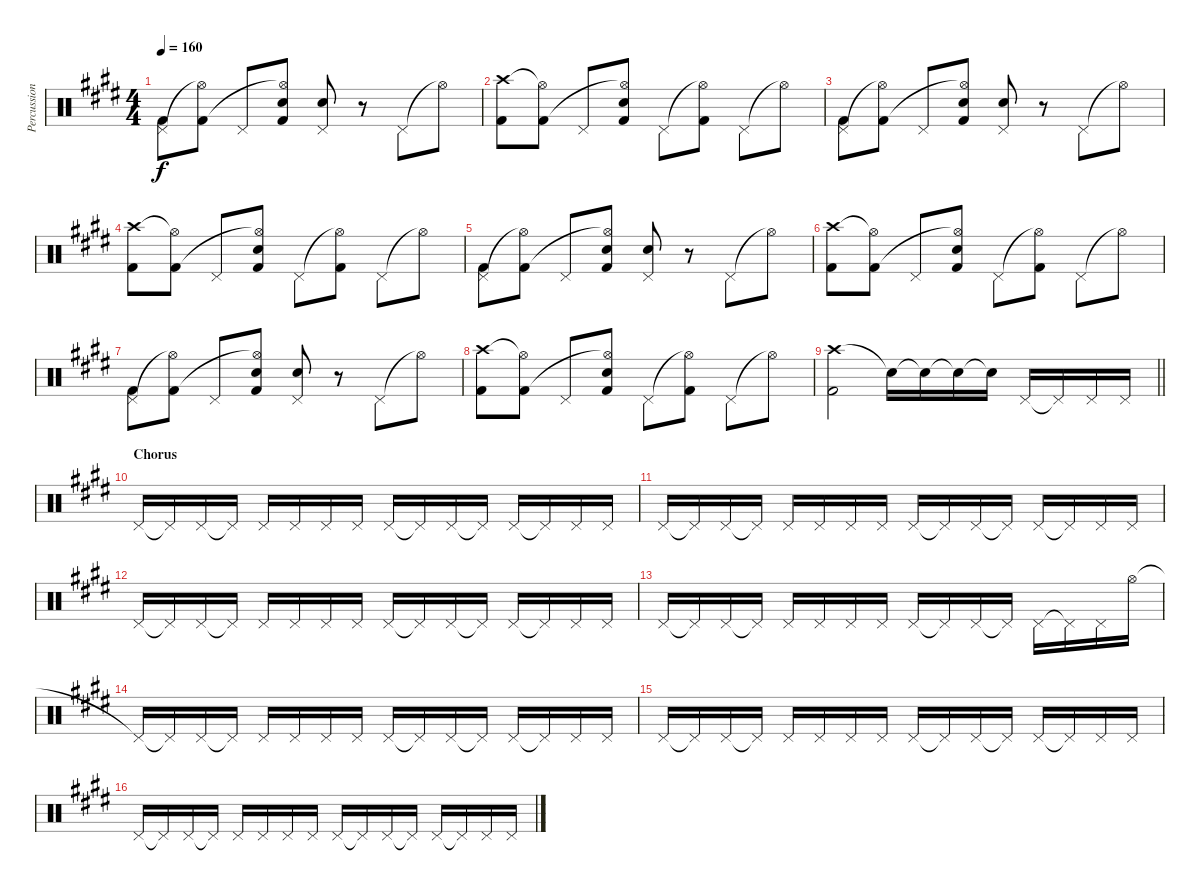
\track ("Percussion" "Percussion") {instrument percussion}
\staff {score}
\articulation defaults
\ts (4 4)
\tempo 160
\clef neutral
\ks c#minor
("Pedal Hi-Hat (hit)" "Kick (hit) 2").8{dy f} ("Hi-Hat (open)"{t} "Kick (hit) 2").8 "Pedal Hi-Hat (hit)".8 ("Electric Snare (hit)" "Hi-Hat (open)"{t} "Kick (hit) 2").8 ("Electric Snare (hit)" "Pedal Hi-Hat (hit)").8 r.8 "Pedal Hi-Hat (hit)".8 "Hi-Hat (open)"{t}.8 |
("Crash high (hit)" "Kick (hit) 2").8 ("Hi-Hat (open)"{t} "Kick (hit) 2").8 "Pedal Hi-Hat (hit)".8 ("Electric Snare (hit)" "Hi-Hat (open)"{t} "Kick (hit) 2").8 "Pedal Hi-Hat (hit)".8 ("Hi-Hat (open)"{t} "Kick (hit) 2").8 "Pedal Hi-Hat (hit)".8 "Hi-Hat (open)"{t}.8 |
("Pedal Hi-Hat (hit)" "Kick (hit) 2").8 ("Hi-Hat (open)"{t} "Kick (hit) 2").8 "Pedal Hi-Hat (hit)".8 ("Electric Snare (hit)" "Hi-Hat (open)"{t} "Kick (hit) 2").8 ("Electric Snare (hit)" "Pedal Hi-Hat (hit)").8 r.8 "Pedal Hi-Hat (hit)".8 "Hi-Hat (open)"{t}.8 |
("Crash high (hit)" "Kick (hit) 2").8 ("Hi-Hat (open)"{t} "Kick (hit) 2").8 "Pedal Hi-Hat (hit)".8 ("Electric Snare (hit)" "Hi-Hat (open)"{t} "Kick (hit) 2").8 "Pedal Hi-Hat (hit)".8 ("Hi-Hat (open)"{t} "Kick (hit) 2").8 "Pedal Hi-Hat (hit)".8 "Hi-Hat (open)"{t}.8 |
("Pedal Hi-Hat (hit)" "Kick (hit) 2").8 ("Hi-Hat (open)"{t} "Kick (hit) 2").8 "Pedal Hi-Hat (hit)".8 ("Electric Snare (hit)" "Hi-Hat (open)"{t} "Kick (hit) 2").8 ("Electric Snare (hit)" "Pedal Hi-Hat (hit)").8 r.8 "Pedal Hi-Hat (hit)".8 "Hi-Hat (open)"{t}.8 |
("Crash high (hit)" "Kick (hit) 2").8 ("Hi-Hat (open)"{t} "Kick (hit) 2").8 "Pedal Hi-Hat (hit)".8 ("Electric Snare (hit)" "Hi-Hat (open)"{t} "Kick (hit) 2").8 "Pedal Hi-Hat (hit)".8 ("Hi-Hat (open)"{t} "Kick (hit) 2").8 "Pedal Hi-Hat (hit)".8 "Hi-Hat (open)"{t}.8 |
("Pedal Hi-Hat (hit)" "Kick (hit) 2").8 ("Hi-Hat (open)"{t} "Kick (hit) 2").8 "Pedal Hi-Hat (hit)".8 ("Electric Snare (hit)" "Hi-Hat (open)"{t} "Kick (hit) 2").8 ("Electric Snare (hit)" "Pedal Hi-Hat (hit)").8 r.8 "Pedal Hi-Hat (hit)".8 "Hi-Hat (open)"{t}.8 |
("Crash high (hit)" "Kick (hit) 2").8 ("Hi-Hat (open)"{t} "Kick (hit) 2").8 "Pedal Hi-Hat (hit)".8 ("Electric Snare (hit)" "Hi-Hat (open)"{t} "Kick (hit) 2").8 "Pedal Hi-Hat (hit)".8 ("Hi-Hat (open)"{t} "Kick (hit) 2").8 "Pedal Hi-Hat (hit)".8 "Hi-Hat (open)"{t}.8 |
\barLineRight lightlight
("Crash high (hit)" "Kick (hit) 2").2 "Snare (hit)"{t}.16 "Snare (hit)"{t}.16 "Snare (hit)"{t}.16 "Snare (hit)"{t}.16 "Pedal Hi-Hat (hit)".16{volume 8} "Pedal Hi-Hat (hit)"{t}.16 "Pedal Hi-Hat (hit)".16 "Pedal Hi-Hat (hit)".16 |
\section ("" "Chorus")
"Pedal Hi-Hat (hit)".16 "Pedal Hi-Hat (hit)"{t}.16 "Pedal Hi-Hat (hit)".16 "Pedal Hi-Hat (hit)"{t}.16 "Pedal Hi-Hat (hit)".16 "Pedal Hi-Hat (hit)".16 "Pedal Hi-Hat (hit)".16 "Pedal Hi-Hat (hit)".16 "Pedal Hi-Hat (hit)".16 "Pedal Hi-Hat (hit)"{t}.16 "Pedal Hi-Hat (hit)".16 "Pedal Hi-Hat (hit)"{t}.16 "Pedal Hi-Hat (hit)".16 "Pedal Hi-Hat (hit)"{t}.16 "Pedal Hi-Hat (hit)".16 "Pedal Hi-Hat (hit)".16 |
"Pedal Hi-Hat (hit)".16 "Pedal Hi-Hat (hit)"{t}.16 "Pedal Hi-Hat (hit)".16 "Pedal Hi-Hat (hit)"{t}.16 "Pedal Hi-Hat (hit)".16 "Pedal Hi-Hat (hit)".16 "Pedal Hi-Hat (hit)".16 "Pedal Hi-Hat (hit)".16 "Pedal Hi-Hat (hit)".16 "Pedal Hi-Hat (hit)"{t}.16 "Pedal Hi-Hat (hit)".16 "Pedal Hi-Hat (hit)"{t}.16 "Pedal Hi-Hat (hit)".16 "Pedal Hi-Hat (hit)"{t}.16 "Pedal Hi-Hat (hit)".16 "Pedal Hi-Hat (hit)".16 |
"Pedal Hi-Hat (hit)".16 "Pedal Hi-Hat (hit)"{t}.16 "Pedal Hi-Hat (hit)".16 "Pedal Hi-Hat (hit)"{t}.16 "Pedal Hi-Hat (hit)".16 "Pedal Hi-Hat (hit)".16 "Pedal Hi-Hat (hit)".16 "Pedal Hi-Hat (hit)".16 "Pedal Hi-Hat (hit)".16 "Pedal Hi-Hat (hit)"{t}.16 "Pedal Hi-Hat (hit)".16 "Pedal Hi-Hat (hit)"{t}.16 "Pedal Hi-Hat (hit)".16 "Pedal Hi-Hat (hit)"{t}.16 "Pedal Hi-Hat (hit)".16 "Pedal Hi-Hat (hit)".16 |
"Pedal Hi-Hat (hit)".16 "Pedal Hi-Hat (hit)"{t}.16 "Pedal Hi-Hat (hit)".16 "Pedal Hi-Hat (hit)"{t}.16 "Pedal Hi-Hat (hit)".16 "Pedal Hi-Hat (hit)".16 "Pedal Hi-Hat (hit)".16 "Pedal Hi-Hat (hit)".16 "Pedal Hi-Hat (hit)".16 "Pedal Hi-Hat (hit)"{t}.16 "Pedal Hi-Hat (hit)".16 "Pedal Hi-Hat (hit)"{t}.16 "Pedal Hi-Hat (hit)".16 "Pedal Hi-Hat (hit)"{t}.16 "Pedal Hi-Hat (hit)".16 "Hi-Hat (open)".16 |
"Pedal Hi-Hat (hit)"{t}.16 "Pedal Hi-Hat (hit)"{t}.16 "Pedal Hi-Hat (hit)".16 "Pedal Hi-Hat (hit)"{t}.16 "Pedal Hi-Hat (hit)".16 "Pedal Hi-Hat (hit)".16 "Pedal Hi-Hat (hit)".16 "Pedal Hi-Hat (hit)".16 "Pedal Hi-Hat (hit)".16 "Pedal Hi-Hat (hit)"{t}.16 "Pedal Hi-Hat (hit)".16 "Pedal Hi-Hat (hit)"{t}.16 "Pedal Hi-Hat (hit)".16 "Pedal Hi-Hat (hit)"{t}.16 "Pedal Hi-Hat (hit)".16 "Pedal Hi-Hat (hit)".16 |
"Pedal Hi-Hat (hit)".16 "Pedal Hi-Hat (hit)"{t}.16 "Pedal Hi-Hat (hit)".16 "Pedal Hi-Hat (hit)"{t}.16 "Pedal Hi-Hat (hit)".16 "Pedal Hi-Hat (hit)".16 "Pedal Hi-Hat (hit)".16 "Pedal Hi-Hat (hit)".16 "Pedal Hi-Hat (hit)".16 "Pedal Hi-Hat (hit)"{t}.16 "Pedal Hi-Hat (hit)".16 "Pedal Hi-Hat (hit)"{t}.16 "Pedal Hi-Hat (hit)".16 "Pedal Hi-Hat (hit)"{t}.16 "Pedal Hi-Hat (hit)".16 "Pedal Hi-Hat (hit)".16 |
"Pedal Hi-Hat (hit)".16 "Pedal Hi-Hat (hit)"{t}.16 "Pedal Hi-Hat (hit)".16 "Pedal Hi-Hat (hit)"{t}.16 "Pedal Hi-Hat (hit)".16 "Pedal Hi-Hat (hit)".16 "Pedal Hi-Hat (hit)".16 "Pedal Hi-Hat (hit)".16 "Pedal Hi-Hat (hit)".16 "Pedal Hi-Hat (hit)"{t}.16 "Pedal Hi-Hat (hit)".16 "Pedal Hi-Hat (hit)"{t}.16 "Pedal Hi-Hat (hit)".16 "Pedal Hi-Hat (hit)"{t}.16 "Pedal Hi-Hat (hit)".16 "Pedal Hi-Hat (hit)".16
